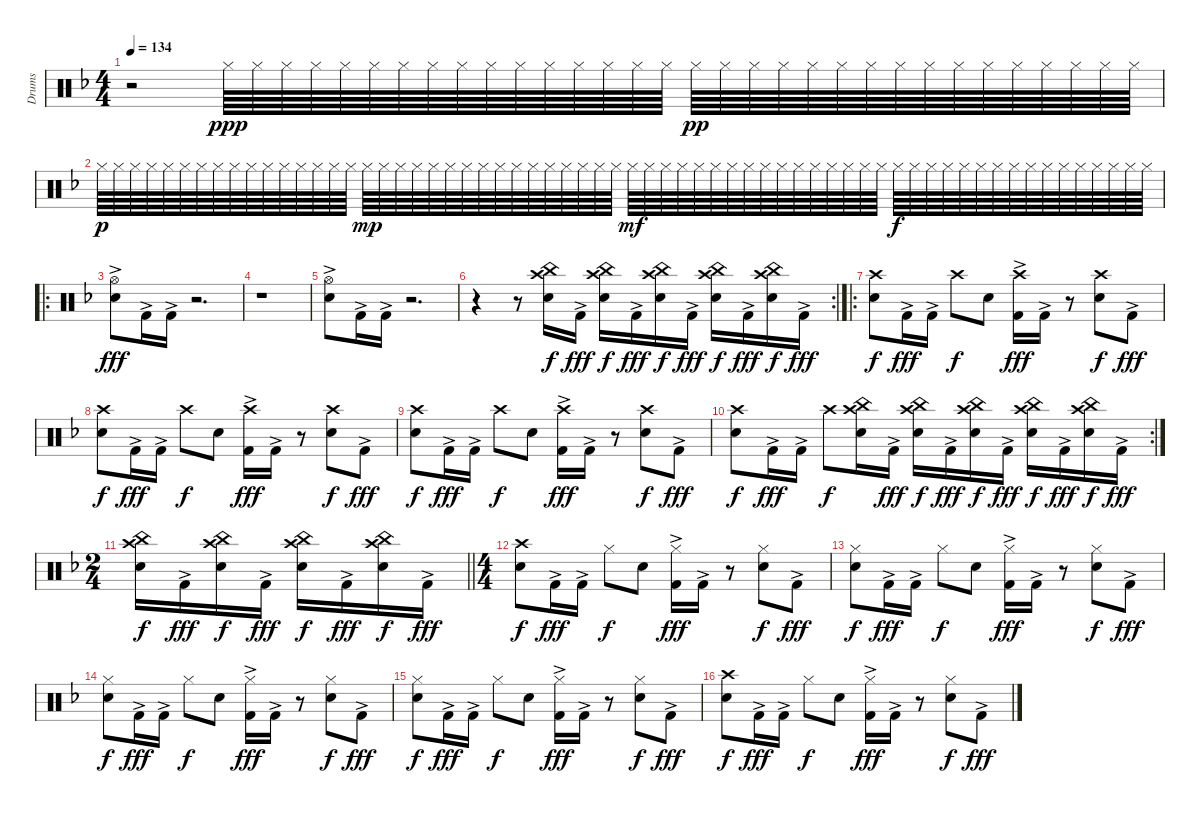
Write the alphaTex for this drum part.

\track ("Drums" "Drums") {instrument percussion}
\staff {score}
\articulation defaults
\ts (4 4)
\tempo 134
\clef neutral
\ks dminor
r.2{dy ppp} "Hi-Hat (closed)".64 "Hi-Hat (closed)".64 "Hi-Hat (closed)".64 "Hi-Hat (closed)".64 "Hi-Hat (closed)".64 "Hi-Hat (closed)".64 "Hi-Hat (closed)".64 "Hi-Hat (closed)".64 "Hi-Hat (closed)".64 "Hi-Hat (closed)".64 "Hi-Hat (closed)".64 "Hi-Hat (closed)".64 "Hi-Hat (closed)".64 "Hi-Hat (closed)".64 "Hi-Hat (closed)".64 "Hi-Hat (closed)".64 "Hi-Hat (closed)".64{dy pp} "Hi-Hat (closed)".64 "Hi-Hat (closed)".64 "Hi-Hat (closed)".64 "Hi-Hat (closed)".64 "Hi-Hat (closed)".64 "Hi-Hat (closed)".64 "Hi-Hat (closed)".64 "Hi-Hat (closed)".64 "Hi-Hat (closed)".64 "Hi-Hat (closed)".64 "Hi-Hat (closed)".64 "Hi-Hat (closed)".64 "Hi-Hat (closed)".64 "Hi-Hat (closed)".64 "Hi-Hat (closed)".64 |
"Hi-Hat (closed)".64{dy p} "Hi-Hat (closed)".64 "Hi-Hat (closed)".64 "Hi-Hat (closed)".64 "Hi-Hat (closed)".64 "Hi-Hat (closed)".64 "Hi-Hat (closed)".64 "Hi-Hat (closed)".64 "Hi-Hat (closed)".64 "Hi-Hat (closed)".64 "Hi-Hat (closed)".64 "Hi-Hat (closed)".64 "Hi-Hat (closed)".64 "Hi-Hat (closed)".64 "Hi-Hat (closed)".64 "Hi-Hat (closed)".64 "Hi-Hat (closed)".64{dy mp} "Hi-Hat (closed)".64 "Hi-Hat (closed)".64 "Hi-Hat (closed)".64 "Hi-Hat (closed)".64 "Hi-Hat (closed)".64 "Hi-Hat (closed)".64 "Hi-Hat (closed)".64 "Hi-Hat (closed)".64 "Hi-Hat (closed)".64 "Hi-Hat (closed)".64 "Hi-Hat (closed)".64 "Hi-Hat (closed)".64 "Hi-Hat (closed)".64 "Hi-Hat (closed)".64 "Hi-Hat (closed)".64 "Hi-Hat (closed)".64{dy mf} "Hi-Hat (closed)".64 "Hi-Hat (closed)".64 "Hi-Hat (closed)".64 "Hi-Hat (closed)".64 "Hi-Hat (closed)".64 "Hi-Hat (closed)".64 "Hi-Hat (closed)".64 "Hi-Hat (closed)".64 "Hi-Hat (closed)".64 "Hi-Hat (closed)".64 "Hi-Hat (closed)".64 "Hi-Hat (closed)".64 "Hi-Hat (closed)".64 "Hi-Hat (closed)".64 "Hi-Hat (closed)".64 "Hi-Hat (closed)".64{dy f} "Hi-Hat (closed)".64 "Hi-Hat (closed)".64 "Hi-Hat (closed)".64 "Hi-Hat (closed)".64 "Hi-Hat (closed)".64 "Hi-Hat (closed)".64 "Hi-Hat (closed)".64 "Hi-Hat (closed)".64 "Hi-Hat (closed)".64 "Hi-Hat (closed)".64 "Hi-Hat (closed)".64 "Hi-Hat (closed)".64 "Hi-Hat (closed)".64 "Hi-Hat (closed)".64 "Hi-Hat (closed)".64 |
\ro
("Hi-Hat (open)"{ac} "Snare (hit) 2").8{dy fff} "Kick (hit) 2"{ac}.16 "Kick (hit) 2"{ac}.16 r.2{d} |
r.1 |
("Hi-Hat (open)"{ac} "Snare (hit) 2").8 "Kick (hit) 2"{ac}.16 "Kick (hit) 2"{ac}.16 r.2{d} |
\rc 2
r.4 r.8 ("Crash high (hit)" "China (hit)" "Snare (hit) 2").16{dy f} "Kick (hit) 2"{ac}.16{dy fff} ("Crash high (hit)" "China (hit)" "Snare (hit) 2").16{dy f} "Kick (hit) 2"{ac}.16{dy fff} ("Crash high (hit)" "China (hit)" "Snare (hit) 2").16{dy f} "Kick (hit) 2"{ac}.16{dy fff} ("Crash high (hit)" "China (hit)" "Snare (hit) 2").16{dy f} "Kick (hit) 2"{ac}.16{dy fff} ("Crash high (hit)" "China (hit)" "Snare (hit) 2").16{dy f} "Kick (hit) 2"{ac}.16{dy fff} |
\ro
("Crash high (hit)" "Snare (hit) 2").8{dy f} "Kick (hit) 2"{ac}.16{dy fff} "Kick (hit) 2"{ac}.16 "Crash high (hit)".8{dy f} "Snare (hit) 2".8 ("Crash high (hit)" "Kick (hit) 2"{ac}).16{dy fff} "Kick (hit) 2"{ac}.16 r.8 ("Crash high (hit)" "Snare (hit) 2").8{dy f} "Kick (hit) 2"{ac}.8{dy fff} |
("Crash high (hit)" "Snare (hit) 2").8{dy f} "Kick (hit) 2"{ac}.16{dy fff} "Kick (hit) 2"{ac}.16 "Crash high (hit)".8{dy f} "Snare (hit) 2".8 ("Crash high (hit)" "Kick (hit) 2"{ac}).16{dy fff} "Kick (hit) 2"{ac}.16 r.8 ("Crash high (hit)" "Snare (hit) 2").8{dy f} "Kick (hit) 2"{ac}.8{dy fff} |
("Crash high (hit)" "Snare (hit) 2").8{dy f} "Kick (hit) 2"{ac}.16{dy fff} "Kick (hit) 2"{ac}.16 "Crash high (hit)".8{dy f} "Snare (hit) 2".8 ("Crash high (hit)" "Kick (hit) 2"{ac}).16{dy fff} "Kick (hit) 2"{ac}.16 r.8 ("Crash high (hit)" "Snare (hit) 2").8{dy f} "Kick (hit) 2"{ac}.8{dy fff} |
\rc 2
("Crash high (hit)" "Snare (hit) 2").8{dy f} "Kick (hit) 2"{ac}.16{dy fff} "Kick (hit) 2"{ac}.16 "Crash high (hit)".8{dy f} ("Crash high (hit)" "China (hit)" "Snare (hit) 2").16 "Kick (hit) 2"{ac}.16{dy fff} ("Crash high (hit)" "China (hit)" "Snare (hit) 2").16{dy f} "Kick (hit) 2"{ac}.16{dy fff} ("Crash high (hit)" "China (hit)" "Snare (hit) 2").16{dy f} "Kick (hit) 2"{ac}.16{dy fff} ("Crash high (hit)" "China (hit)" "Snare (hit) 2").16{dy f} "Kick (hit) 2"{ac}.16{dy fff} ("Crash high (hit)" "China (hit)" "Snare (hit) 2").16{dy f} "Kick (hit) 2"{ac}.16{dy fff} |
\ts (2 4)
\barLineRight lightlight
("Crash high (hit)" "China (hit)" "Snare (hit) 2").16{dy f} "Kick (hit) 2"{ac}.16{dy fff} ("Crash high (hit)" "China (hit)" "Snare (hit) 2").16{dy f} "Kick (hit) 2"{ac}.16{dy fff} ("Crash high (hit)" "China (hit)" "Snare (hit) 2").16{dy f} "Kick (hit) 2"{ac}.16{dy fff} ("Crash high (hit)" "China (hit)" "Snare (hit) 2").16{dy f} "Kick (hit) 2"{ac}.16{dy fff} |
\ts (4 4)
("Crash high (hit)" "Snare (hit) 2").8{dy f} "Kick (hit) 2"{ac}.16{dy fff} "Kick (hit) 2"{ac}.16 "Hi-Hat (closed)".8{dy f} "Snare (hit) 2".8 ("Hi-Hat (closed)" "Kick (hit) 2"{ac}).16{dy fff} "Kick (hit) 2"{ac}.16 r.8 ("Hi-Hat (closed)" "Snare (hit) 2").8{dy f} "Kick (hit) 2"{ac}.8{dy fff} |
("Hi-Hat (closed)" "Snare (hit) 2").8{dy f} "Kick (hit) 2"{ac}.16{dy fff} "Kick (hit) 2"{ac}.16 "Hi-Hat (closed)".8{dy f} "Snare (hit) 2".8 ("Hi-Hat (closed)" "Kick (hit) 2"{ac}).16{dy fff} "Kick (hit) 2"{ac}.16 r.8 ("Hi-Hat (closed)" "Snare (hit) 2").8{dy f} "Kick (hit) 2"{ac}.8{dy fff} |
("Hi-Hat (closed)" "Snare (hit) 2").8{dy f} "Kick (hit) 2"{ac}.16{dy fff} "Kick (hit) 2"{ac}.16 "Hi-Hat (closed)".8{dy f} "Snare (hit) 2".8 ("Hi-Hat (closed)" "Kick (hit) 2"{ac}).16{dy fff} "Kick (hit) 2"{ac}.16 r.8 ("Hi-Hat (closed)" "Snare (hit) 2").8{dy f} "Kick (hit) 2"{ac}.8{dy fff} |
("Hi-Hat (closed)" "Snare (hit) 2").8{dy f} "Kick (hit) 2"{ac}.16{dy fff} "Kick (hit) 2"{ac}.16 "Hi-Hat (closed)".8{dy f} "Snare (hit) 2".8 ("Hi-Hat (closed)" "Kick (hit) 2"{ac}).16{dy fff} "Kick (hit) 2"{ac}.16 r.8 ("Hi-Hat (closed)" "Snare (hit) 2").8{dy f} "Kick (hit) 2"{ac}.8{dy fff} |
("Crash high (hit)" "Snare (hit) 2").8{dy f} "Kick (hit) 2"{ac}.16{dy fff} "Kick (hit) 2"{ac}.16 "Hi-Hat (closed)".8{dy f} "Snare (hit) 2".8 ("Hi-Hat (closed)" "Kick (hit) 2"{ac}).16{dy fff} "Kick (hit) 2"{ac}.16 r.8 ("Hi-Hat (closed)" "Snare (hit) 2").8{dy f} "Kick (hit) 2"{ac}.8{dy fff}
